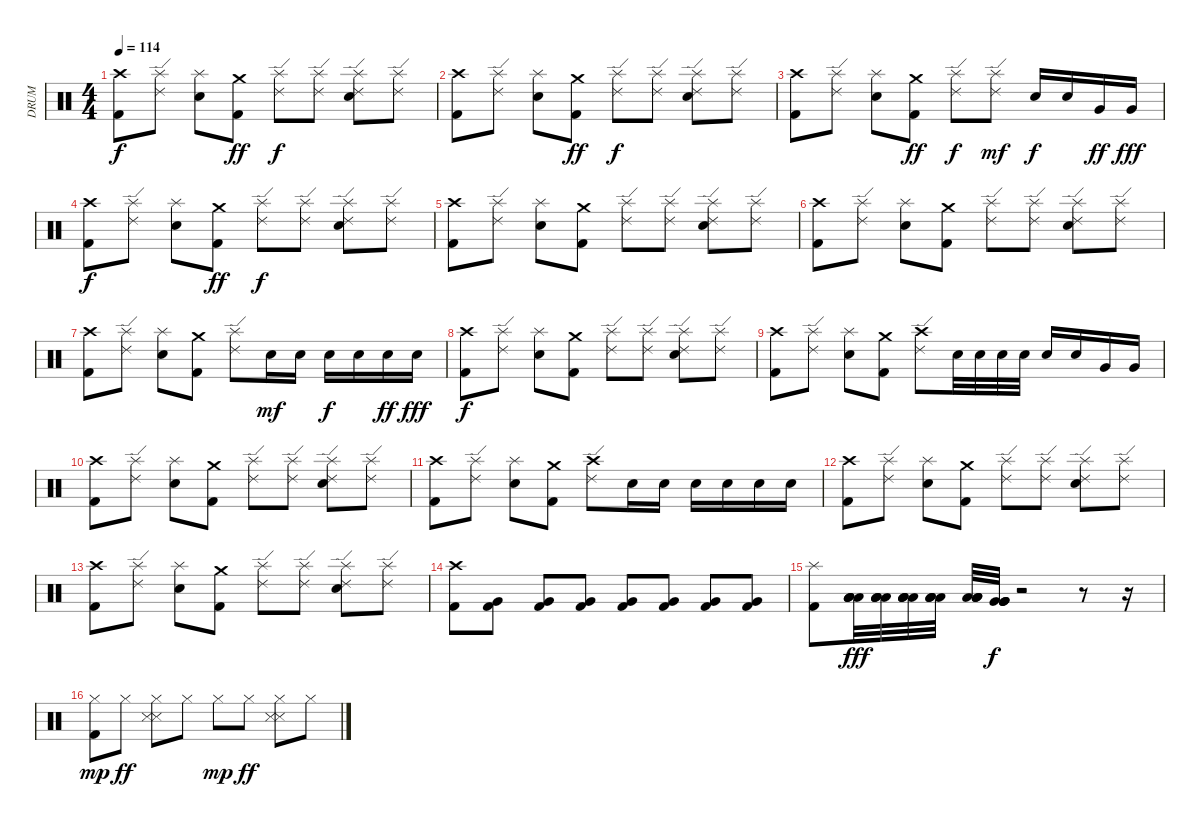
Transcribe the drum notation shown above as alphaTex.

\track ("DRUM" "DRUM") {instrument percussion}
\staff {score}
\articulation defaults
\ts (4 4)
\tempo 114
\clef neutral
\ks c
("Crash high (hit)" "Kick (hit) 2").8{dy f} ("Splash (hit)" "Ride (edge) 2").8 ("Splash (hit)" "Electric Snare (hit)").8 ("Crash medium (hit)" "Kick (hit) 2").8{dy ff} ("Splash (hit)" "Ride (edge) 2").8{dy f} ("Ride (edge) 2" "Splash (hit)").8 ("Ride (edge) 2" "Splash (hit)" "Electric Snare (hit)").8 ("Ride (edge) 2" "Splash (hit)").8 |
("Crash high (hit)" "Kick (hit) 2").8 ("Splash (hit)" "Ride (edge) 2").8 ("Splash (hit)" "Electric Snare (hit)").8 ("Crash medium (hit)" "Kick (hit) 2").8{dy ff} ("Splash (hit)" "Ride (edge) 2").8{dy f} ("Ride (edge) 2" "Splash (hit)").8 ("Ride (edge) 2" "Splash (hit)" "Electric Snare (hit)").8 ("Ride (edge) 2" "Splash (hit)").8 |
("Crash high (hit)" "Kick (hit) 2").8 ("Splash (hit)" "Ride (edge) 2").8 ("Splash (hit)" "Electric Snare (hit)").8 ("Crash medium (hit)" "Kick (hit) 2").8{dy ff} ("Splash (hit)" "Ride (edge) 2").8{dy f} ("Splash (hit)" "Ride (edge) 2").8{dy mf} "Electric Snare (hit)".16{dy f} "Electric Snare (hit)".16 "Very Low Tom (hit)".16{dy ff} "Very Low Tom (hit)".16{dy fff} |
("Crash high (hit)" "Kick (hit) 2").8{dy f} ("Splash (hit)" "Ride (edge) 2").8 ("Splash (hit)" "Electric Snare (hit)").8 ("Crash medium (hit)" "Kick (hit) 2").8{dy ff} ("Splash (hit)" "Ride (edge) 2").8{dy f} ("Ride (edge) 2" "Splash (hit)").8 ("Ride (edge) 2" "Splash (hit)" "Electric Snare (hit)").8 ("Ride (edge) 2" "Splash (hit)").8 |
("Crash high (hit)" "Kick (hit) 2").8 ("Splash (hit)" "Ride (edge) 2").8 ("Splash (hit)" "Electric Snare (hit)").8 ("Crash medium (hit)" "Kick (hit) 2").8 ("Splash (hit)" "Ride (edge) 2").8 ("Ride (edge) 2" "Splash (hit)").8 ("Ride (edge) 2" "Splash (hit)" "Electric Snare (hit)").8 ("Ride (edge) 2" "Splash (hit)").8 |
("Crash high (hit)" "Kick (hit) 2").8 ("Splash (hit)" "Ride (edge) 2").8 ("Splash (hit)" "Electric Snare (hit)").8 ("Crash medium (hit)" "Kick (hit) 2").8 ("Splash (hit)" "Ride (edge) 2").8 ("Ride (edge) 2" "Splash (hit)").8 ("Ride (edge) 2" "Splash (hit)" "Electric Snare (hit)").8 ("Ride (edge) 2" "Splash (hit)").8 |
("Crash high (hit)" "Kick (hit) 2").8 ("Splash (hit)" "Ride (edge) 2").8 ("Splash (hit)" "Electric Snare (hit)").8 ("Crash medium (hit)" "Kick (hit) 2").8 ("Splash (hit)" "Ride (edge) 2").8 "Electric Snare (hit)".16{dy mf} "Electric Snare (hit)".16 "Electric Snare (hit)".16{dy f} "Electric Snare (hit)".16 "Electric Snare (hit)".16{dy ff} "Electric Snare (hit)".16{dy fff} |
("Crash high (hit)" "Kick (hit) 2").8{dy f} ("Splash (hit)" "Ride (edge) 2").8 ("Splash (hit)" "Electric Snare (hit)").8 ("Crash medium (hit)" "Kick (hit) 2").8 ("Splash (hit)" "Ride (edge) 2").8 ("Ride (edge) 2" "Splash (hit)").8 ("Ride (edge) 2" "Splash (hit)" "Electric Snare (hit)").8 ("Ride (edge) 2" "Splash (hit)").8 |
("Crash high (hit)" "Kick (hit) 2").8 ("Splash (hit)" "Ride (edge) 2").8 ("Splash (hit)" "Electric Snare (hit)").8 ("Crash medium (hit)" "Kick (hit) 2").8 ("Crash high (hit)" "Ride (edge) 2").8 "Electric Snare (hit)".32 "Electric Snare (hit)".32 "Electric Snare (hit)".32 "Electric Snare (hit)".32 "Electric Snare (hit)".16 "Electric Snare (hit)".16 "Very Low Tom (hit)".16 "Very Low Tom (hit)".16 |
("Crash high (hit)" "Kick (hit) 2").8 ("Splash (hit)" "Ride (edge) 2").8 ("Splash (hit)" "Electric Snare (hit)").8 ("Crash medium (hit)" "Kick (hit) 2").8 ("Splash (hit)" "Ride (edge) 2").8 ("Ride (edge) 2" "Splash (hit)").8 ("Ride (edge) 2" "Splash (hit)" "Electric Snare (hit)").8 ("Ride (edge) 2" "Splash (hit)").8 |
("Crash high (hit)" "Kick (hit) 2").8 ("Splash (hit)" "Ride (edge) 2").8 ("Splash (hit)" "Electric Snare (hit)").8 ("Crash medium (hit)" "Kick (hit) 2").8 ("Crash high (hit)" "Ride (edge) 2").8 "Electric Snare (hit)".16 "Electric Snare (hit)".16 "Electric Snare (hit)".16 "Electric Snare (hit)".16 "Electric Snare (hit)".16 "Electric Snare (hit)".16 |
("Crash high (hit)" "Kick (hit) 2").8 ("Splash (hit)" "Ride (edge) 2").8 ("Splash (hit)" "Electric Snare (hit)").8 ("Crash medium (hit)" "Kick (hit) 2").8 ("Splash (hit)" "Ride (edge) 2").8 ("Ride (edge) 2" "Splash (hit)").8 ("Ride (edge) 2" "Splash (hit)" "Electric Snare (hit)").8 ("Ride (edge) 2" "Splash (hit)").8 |
("Crash high (hit)" "Kick (hit) 2").8 ("Splash (hit)" "Ride (edge) 2").8 ("Splash (hit)" "Electric Snare (hit)").8 ("Crash medium (hit)" "Kick (hit) 2").8 ("Splash (hit)" "Ride (edge) 2").8 ("Ride (edge) 2" "Splash (hit)").8 ("Ride (edge) 2" "Splash (hit)" "Electric Snare (hit)").8 ("Ride (edge) 2" "Splash (hit)").8 |
("Crash high (hit)" "Kick (hit) 2").8 ("Very Low Tom (hit)" "Kick (hit) 2").8 ("Very Low Tom (hit)" "Kick (hit) 2").8 ("Very Low Tom (hit)" "Kick (hit) 2").8 ("Very Low Tom (hit)" "Kick (hit) 2").8 ("Very Low Tom (hit)" "Kick (hit) 2").8 ("Very Low Tom (hit)" "Kick (hit) 2").8 ("Very Low Tom (hit)" "Kick (hit) 2").8 |
("Splash (hit)" "Kick (hit) 2").8 ("Low Tom (hit)" "Low Tom (hit)" "Low Tom (hit)" "Low Tom (hit)").32{dy fff} ("Low Tom (hit)" "Low Tom (hit)" "Low Tom (hit)" "Low Tom (hit)").32 ("Low Tom (hit)" "Low Tom (hit)" "Low Tom (hit)" "Low Tom (hit)").32 ("Low Tom (hit)" "Low Tom (hit)" "Low Tom (hit)" "Low Tom (hit)").32 ("Low Tom (hit)" "Low Tom (hit)" "Low Tom (hit)" "Low Tom (hit)").32 ("Very Low Tom (hit)" "Very Low Tom (hit)" "Very Low Tom (hit)" "Very Low Tom (hit)").32{dy f} r.2 r.8 r.16 |
("Hi-Hat (closed)" "Kick (hit) 2").8{dy mp} "Hi-Hat (closed)".8{dy ff} ("Hi-Hat (closed)" "Snare (side stick) 3" "Snare (side stick) 3").8 "Hi-Hat (closed)".8 "Hi-Hat (closed)".8{dy mp} "Hi-Hat (closed)".8{dy ff} ("Hi-Hat (closed)" "Snare (side stick) 3" "Snare (side stick) 3").8 "Hi-Hat (closed)".8
